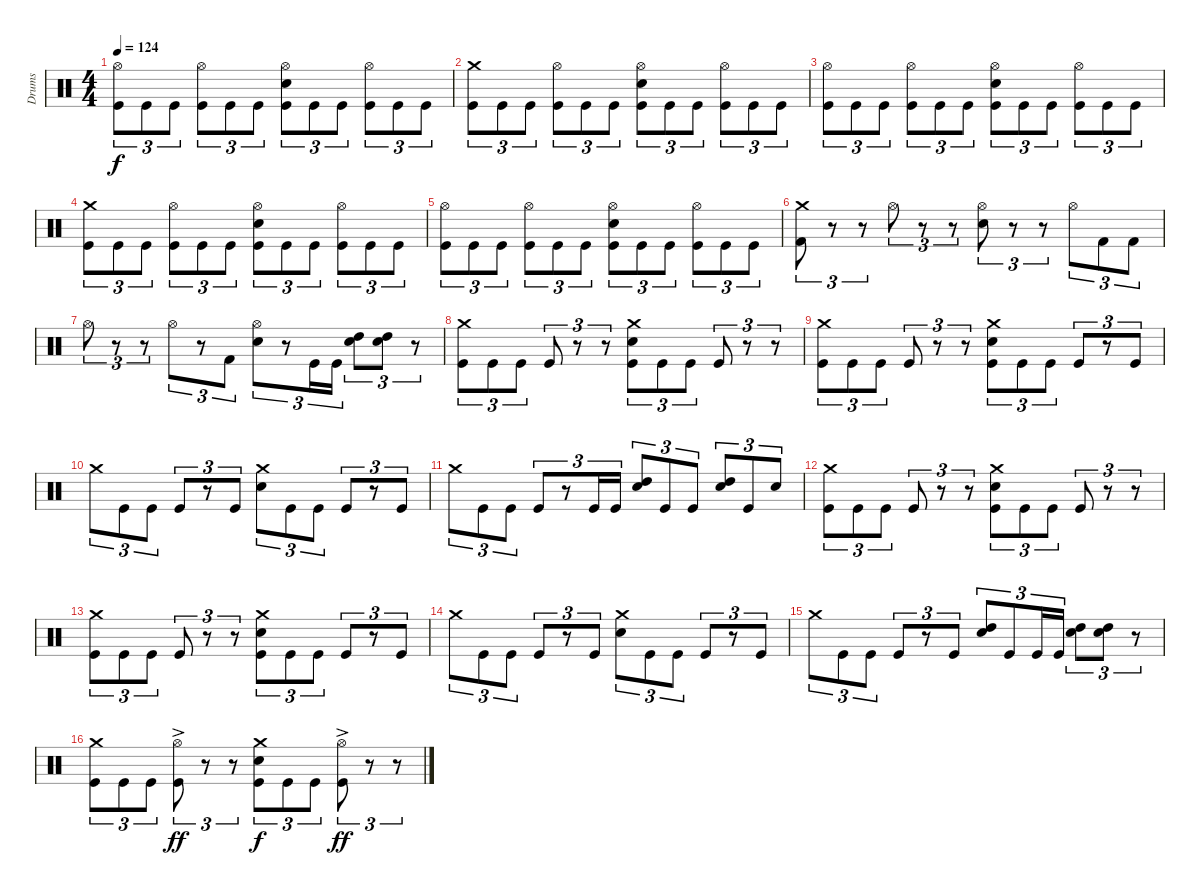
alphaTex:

\track ("Drums" "Drums") {instrument percussion}
\staff {score}
\articulation defaults
\ts (4 4)
\tempo 124
\clef neutral
\ks c
("Hi-Hat (open)" "Kick (hit)").8{tu (3 2) dy f} "Kick (hit)".8{tu (3 2)} "Kick (hit)".8{tu (3 2)} ("Hi-Hat (open)" "Kick (hit)").8{tu (3 2)} "Kick (hit)".8{tu (3 2)} "Kick (hit)".8{tu (3 2)} ("Hi-Hat (open)" "Electric Snare (hit)" "Kick (hit)").8{tu (3 2)} "Kick (hit)".8{tu (3 2)} "Kick (hit)".8{tu (3 2)} ("Hi-Hat (open)" "Kick (hit)").8{tu (3 2)} "Kick (hit)".8{tu (3 2)} "Kick (hit)".8{tu (3 2)} |
("Crash medium (hit)" "Kick (hit)").8{tu (3 2)} "Kick (hit)".8{tu (3 2)} "Kick (hit)".8{tu (3 2)} ("Hi-Hat (open)" "Kick (hit)").8{tu (3 2)} "Kick (hit)".8{tu (3 2)} "Kick (hit)".8{tu (3 2)} ("Hi-Hat (open)" "Electric Snare (hit)" "Kick (hit)").8{tu (3 2)} "Kick (hit)".8{tu (3 2)} "Kick (hit)".8{tu (3 2)} ("Hi-Hat (open)" "Kick (hit)").8{tu (3 2)} "Kick (hit)".8{tu (3 2)} "Kick (hit)".8{tu (3 2)} |
("Hi-Hat (open)" "Kick (hit)").8{tu (3 2)} "Kick (hit)".8{tu (3 2)} "Kick (hit)".8{tu (3 2)} ("Hi-Hat (open)" "Kick (hit)").8{tu (3 2)} "Kick (hit)".8{tu (3 2)} "Kick (hit)".8{tu (3 2)} ("Hi-Hat (open)" "Electric Snare (hit)" "Kick (hit)").8{tu (3 2)} "Kick (hit)".8{tu (3 2)} "Kick (hit)".8{tu (3 2)} ("Hi-Hat (open)" "Kick (hit)").8{tu (3 2)} "Kick (hit)".8{tu (3 2)} "Kick (hit)".8{tu (3 2)} |
("Crash medium (hit)" "Kick (hit)").8{tu (3 2)} "Kick (hit)".8{tu (3 2)} "Kick (hit)".8{tu (3 2)} ("Hi-Hat (open)" "Kick (hit)").8{tu (3 2)} "Kick (hit)".8{tu (3 2)} "Kick (hit)".8{tu (3 2)} ("Hi-Hat (open)" "Electric Snare (hit)" "Kick (hit)").8{tu (3 2)} "Kick (hit)".8{tu (3 2)} "Kick (hit)".8{tu (3 2)} ("Hi-Hat (open)" "Kick (hit)").8{tu (3 2)} "Kick (hit)".8{tu (3 2)} "Kick (hit)".8{tu (3 2)} |
("Hi-Hat (open)" "Kick (hit)").8{tu (3 2)} "Kick (hit)".8{tu (3 2)} "Kick (hit)".8{tu (3 2)} ("Hi-Hat (open)" "Kick (hit)").8{tu (3 2)} "Kick (hit)".8{tu (3 2)} "Kick (hit)".8{tu (3 2)} ("Hi-Hat (open)" "Electric Snare (hit)" "Kick (hit)").8{tu (3 2)} "Kick (hit)".8{tu (3 2)} "Kick (hit)".8{tu (3 2)} ("Hi-Hat (open)" "Kick (hit)").8{tu (3 2)} "Kick (hit)".8{tu (3 2)} "Kick (hit)".8{tu (3 2)} |
("Crash medium (hit)" "Kick (hit) 2").8{tu (3 2)} r.8{tu (3 2)} r.8{tu (3 2)} "Hi-Hat (open)".8{tu (3 2)} r.8{tu (3 2)} r.8{tu (3 2)} ("Hi-Hat (open)" "Electric Snare (hit)").8{tu (3 2)} r.8{tu (3 2)} r.8{tu (3 2)} "Hi-Hat (open)".8{tu (3 2)} "Kick (hit) 2".8{tu (3 2)} "Kick (hit) 2".8{tu (3 2)} |
"Hi-Hat (open)".8{tu (3 2)} r.8{tu (3 2)} r.8{tu (3 2)} "Hi-Hat (open)".8{tu (3 2)} r.8{tu (3 2)} "Kick (hit) 2".8{tu (3 2)} ("Hi-Hat (open)" "Electric Snare (hit)").8{tu (3 2)} r.8{tu (3 2)} "Kick (hit)".16{tu (3 2)} "Kick (hit)".16{tu (3 2)} ("High Tom (hit)" "Electric Snare (hit)").8{tu (3 2)} ("High Tom (hit)" "Electric Snare (hit)").8{tu (3 2)} r.8{tu (3 2)} |
("Crash medium (hit)" "Kick (hit)").8{tu (3 2)} "Kick (hit)".8{tu (3 2)} "Kick (hit)".8{tu (3 2)} "Kick (hit)".8{tu (3 2)} r.8{tu (3 2)} r.8{tu (3 2)} ("Crash medium (hit)" "Electric Snare (hit)" "Kick (hit)").8{tu (3 2)} "Kick (hit)".8{tu (3 2)} "Kick (hit)".8{tu (3 2)} "Kick (hit)".8{tu (3 2)} r.8{tu (3 2)} r.8{tu (3 2)} |
("Crash medium (hit)" "Kick (hit)").8{tu (3 2)} "Kick (hit)".8{tu (3 2)} "Kick (hit)".8{tu (3 2)} "Kick (hit)".8{tu (3 2)} r.8{tu (3 2)} r.8{tu (3 2)} ("Crash medium (hit)" "Electric Snare (hit)" "Kick (hit)").8{tu (3 2)} "Kick (hit)".8{tu (3 2)} "Kick (hit)".8{tu (3 2)} "Kick (hit)".8{tu (3 2)} r.8{tu (3 2)} "Kick (hit)".8{tu (3 2)} |
"Crash medium (hit)".8{tu (3 2)} "Kick (hit)".8{tu (3 2)} "Kick (hit)".8{tu (3 2)} "Kick (hit)".8{tu (3 2)} r.8{tu (3 2)} "Kick (hit)".8{tu (3 2)} ("Crash medium (hit)" "Electric Snare (hit)").8{tu (3 2)} "Kick (hit)".8{tu (3 2)} "Kick (hit)".8{tu (3 2)} "Kick (hit)".8{tu (3 2)} r.8{tu (3 2)} "Kick (hit)".8{tu (3 2)} |
"Crash medium (hit)".8{tu (3 2)} "Kick (hit)".8{tu (3 2)} "Kick (hit)".8{tu (3 2)} "Kick (hit)".8{tu (3 2)} r.8{tu (3 2)} "Kick (hit)".16{tu (3 2)} "Kick (hit)".16{tu (3 2)} ("High Tom (hit)" "Electric Snare (hit)").8{tu (3 2)} "Kick (hit)".8{tu (3 2)} "Kick (hit)".8{tu (3 2)} ("High Tom (hit)" "Electric Snare (hit)").8{tu (3 2)} "Kick (hit)".8{tu (3 2)} "Electric Snare (hit)".8{tu (3 2)} |
("Crash medium (hit)" "Kick (hit)").8{tu (3 2)} "Kick (hit)".8{tu (3 2)} "Kick (hit)".8{tu (3 2)} "Kick (hit)".8{tu (3 2)} r.8{tu (3 2)} r.8{tu (3 2)} ("Crash medium (hit)" "Electric Snare (hit)" "Kick (hit)").8{tu (3 2)} "Kick (hit)".8{tu (3 2)} "Kick (hit)".8{tu (3 2)} "Kick (hit)".8{tu (3 2)} r.8{tu (3 2)} r.8{tu (3 2)} |
("Crash medium (hit)" "Kick (hit)").8{tu (3 2)} "Kick (hit)".8{tu (3 2)} "Kick (hit)".8{tu (3 2)} "Kick (hit)".8{tu (3 2)} r.8{tu (3 2)} r.8{tu (3 2)} ("Crash medium (hit)" "Electric Snare (hit)" "Kick (hit)").8{tu (3 2)} "Kick (hit)".8{tu (3 2)} "Kick (hit)".8{tu (3 2)} "Kick (hit)".8{tu (3 2)} r.8{tu (3 2)} "Kick (hit)".8{tu (3 2)} |
"Crash medium (hit)".8{tu (3 2)} "Kick (hit)".8{tu (3 2)} "Kick (hit)".8{tu (3 2)} "Kick (hit)".8{tu (3 2)} r.8{tu (3 2)} "Kick (hit)".8{tu (3 2)} ("Crash medium (hit)" "Electric Snare (hit)").8{tu (3 2)} "Kick (hit)".8{tu (3 2)} "Kick (hit)".8{tu (3 2)} "Kick (hit)".8{tu (3 2)} r.8{tu (3 2)} "Kick (hit)".8{tu (3 2)} |
"Crash medium (hit)".8{tu (3 2)} "Kick (hit)".8{tu (3 2)} "Kick (hit)".8{tu (3 2)} "Kick (hit)".8{tu (3 2)} r.8{tu (3 2)} "Kick (hit)".8{tu (3 2)} ("High Tom (hit)" "Electric Snare (hit)").8{tu (3 2)} "Kick (hit)".8{tu (3 2)} "Kick (hit)".16{tu (3 2)} "Kick (hit)".16{tu (3 2)} ("High Tom (hit)" "Electric Snare (hit)").8{tu (3 2)} ("High Tom (hit)" "Electric Snare (hit)").8{tu (3 2)} r.8{tu (3 2)} |
("Crash medium (hit)" "Kick (hit)").8{tu (3 2)} "Kick (hit)".8{tu (3 2)} "Kick (hit)".8{tu (3 2)} ("Hi-Hat (open)"{ac} "Kick (hit)").8{tu (3 2) dy ff} r.8{tu (3 2)} r.8{tu (3 2)} ("Crash medium (hit)" "Electric Snare (hit)" "Kick (hit)").8{tu (3 2) dy f} "Kick (hit)".8{tu (3 2)} "Kick (hit)".8{tu (3 2)} ("Hi-Hat (open)"{ac} "Kick (hit)").8{tu (3 2) dy ff} r.8{tu (3 2)} r.8{tu (3 2)}
